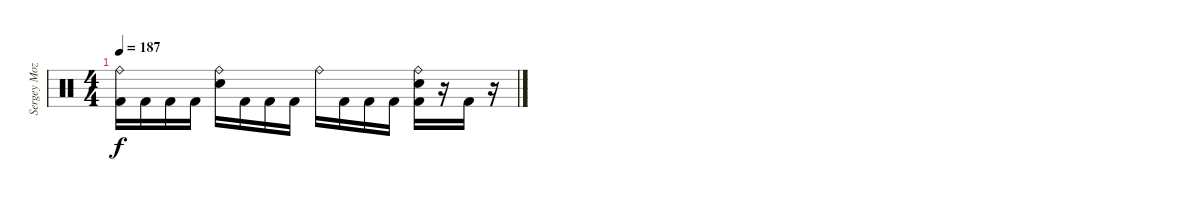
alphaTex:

\track ("Sergey Mozalev " "Sergey Moz") {instrument percussion}
\staff {score}
\articulation defaults
\ts (4 4)
\tempo 187
\clef neutral
\ks c
("Ride (bell)" "Kick (hit) 2").16{dy f} "Kick (hit) 2".16 "Kick (hit) 2".16 "Kick (hit) 2".16 ("Ride (bell)" "Electric Snare (hit)").16 "Kick (hit) 2".16 "Kick (hit) 2".16 "Kick (hit) 2".16 "Ride (bell)".16 "Kick (hit) 2".16 "Kick (hit) 2".16 "Kick (hit) 2".16 ("Electric Snare (hit)" "Ride (bell)" "Kick (hit) 2").16 r.16 "Kick (hit) 2".16 r.16
